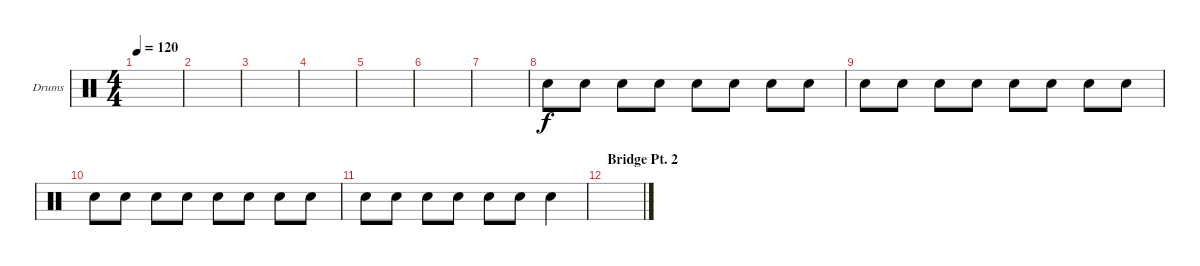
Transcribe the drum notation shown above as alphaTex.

\defaultSystemsLayout 4
\bracketExtendMode groupsimilarinstruments
\firstSystemTrackNameOrientation horizontal
\otherSystemsTrackNameOrientation horizontal
\track ("Drumkit" "Drums") {instrument percussion}
\staff {score}
\articulation defaults
\ts (4 4)
\tempo 120
\clef neutral
\scale
0.333333
\ks c
|
\scale
0.333333 |
|
|
|
|
|
"Snare (hit) 2".8 "Snare (hit) 2".8 "Snare (hit) 2".8 "Snare (hit) 2".8 "Snare (hit) 2".8 "Snare (hit) 2".8 "Snare (hit) 2".8 "Snare (hit) 2".8 |
"Snare (hit) 2".8 "Snare (hit) 2".8 "Snare (hit) 2".8 "Snare (hit) 2".8 "Snare (hit) 2".8 "Snare (hit) 2".8 "Snare (hit) 2".8 "Snare (hit) 2".8 |
"Snare (hit) 2".8 "Snare (hit) 2".8 "Snare (hit) 2".8 "Snare (hit) 2".8 "Snare (hit) 2".8 "Snare (hit) 2".8 "Snare (hit) 2".8 "Snare (hit) 2".8 |
"Snare (hit) 2".8 "Snare (hit) 2".8 "Snare (hit) 2".8 "Snare (hit) 2".8 "Snare (hit) 2".8 "Snare (hit) 2".8 "Snare (hit) 2".4 |
\section ("" "Bridge Pt. 2")
